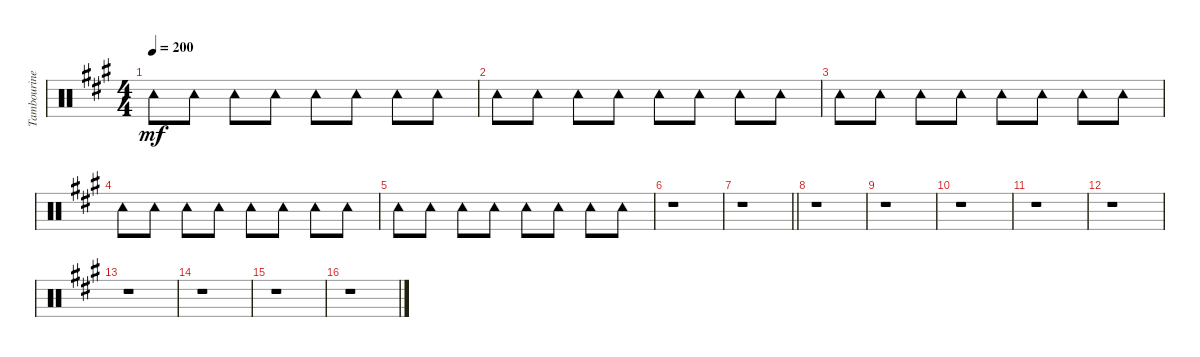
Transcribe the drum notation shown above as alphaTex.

\track ("Tambourine" "Tambourine") {instrument percussion}
\staff {score}
\articulation defaults
\ts (4 4)
\tempo 200
\clef neutral
\ks a "Tambourine (hit)".8{dy mf} "Tambourine (hit)".8 "Tambourine (hit)".8 "Tambourine (hit)".8 "Tambourine (hit)".8 "Tambourine (hit)".8 "Tambourine (hit)".8 "Tambourine (hit)".8
|
"Tambourine (hit)".8 "Tambourine (hit)".8 "Tambourine (hit)".8 "Tambourine (hit)".8 "Tambourine (hit)".8 "Tambourine (hit)".8 "Tambourine (hit)".8 "Tambourine (hit)".8 |
"Tambourine (hit)".8 "Tambourine (hit)".8 "Tambourine (hit)".8 "Tambourine (hit)".8 "Tambourine (hit)".8 "Tambourine (hit)".8 "Tambourine (hit)".8 "Tambourine (hit)".8 |
"Tambourine (hit)".8 "Tambourine (hit)".8 "Tambourine (hit)".8 "Tambourine (hit)".8 "Tambourine (hit)".8 "Tambourine (hit)".8 "Tambourine (hit)".8 "Tambourine (hit)".8 |
"Tambourine (hit)".8 "Tambourine (hit)".8 "Tambourine (hit)".8 "Tambourine (hit)".8 "Tambourine (hit)".8 "Tambourine (hit)".8 "Tambourine (hit)".8 "Tambourine (hit)".8 |
r.1 |
\barLineRight lightlight
r.1 |
\section ("" "")
r.1 |
r.1 |
r.1 |
r.1 |
r.1 |
r.1 |
r.1 |
r.1 |
r.1
